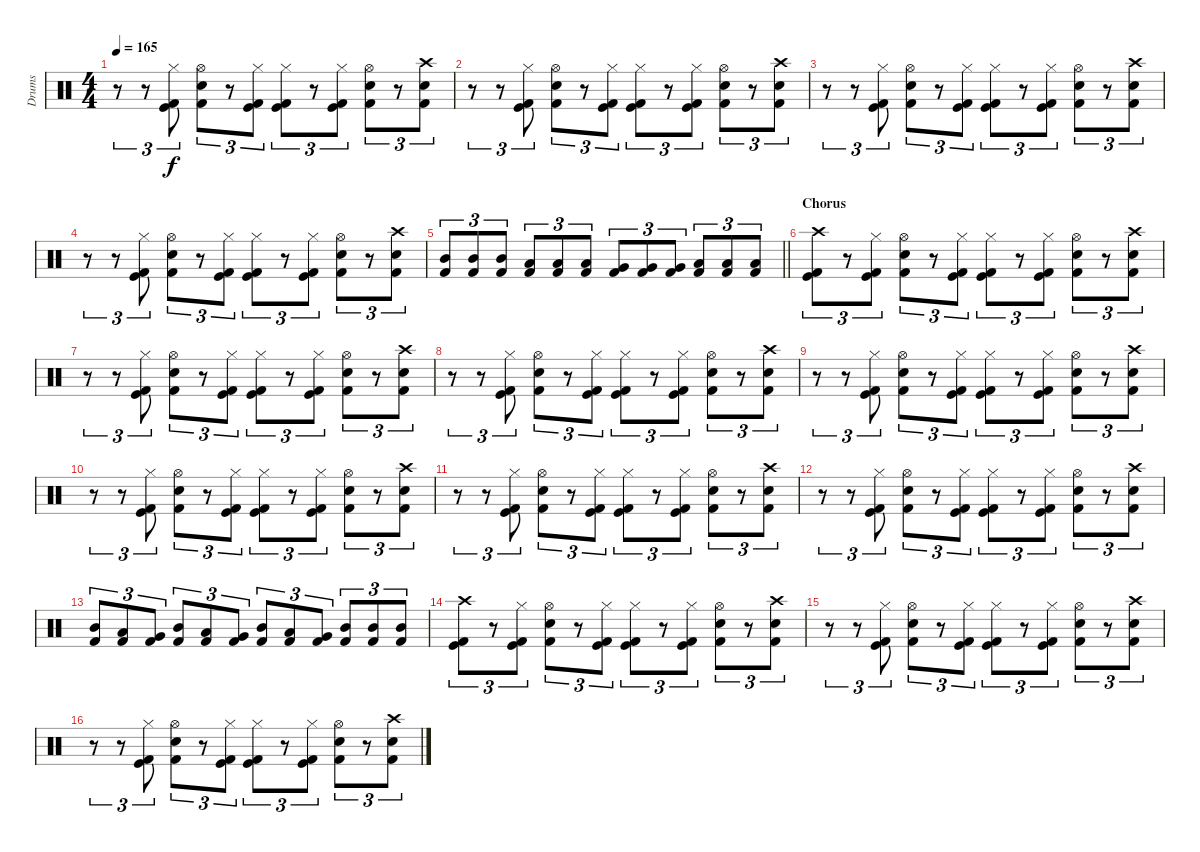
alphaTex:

\track ("Drums" "Drums") {instrument percussion}
\staff {score}
\articulation defaults
\ts (4 4)
\tempo 165
\clef neutral
\ks c
r.8{tu (3 2) dy f} r.8{tu (3 2)} ("Kick (hit)" "Kick (hit) 2" "Hi-Hat (closed)").8{tu (3 2)} ("Snare (hit) 2" "Kick (hit) 2" "Hi-Hat (open)").8{tu (3 2)} r.8{tu (3 2)} ("Kick (hit)" "Kick (hit) 2" "Hi-Hat (closed)").8{tu (3 2)} ("Kick (hit)" "Kick (hit) 2" "Hi-Hat (closed)").8{tu (3 2)} r.8{tu (3 2)} ("Kick (hit)" "Kick (hit) 2" "Hi-Hat (closed)").8{tu (3 2)} ("Snare (hit) 2" "Kick (hit) 2" "Hi-Hat (open)").8{tu (3 2)} r.8{tu (3 2)} ("Snare (hit) 2" "Kick (hit) 2" "Crash high (hit)").8{tu (3 2)} |
r.8{tu (3 2)} r.8{tu (3 2)} ("Kick (hit)" "Kick (hit) 2" "Hi-Hat (closed)").8{tu (3 2)} ("Snare (hit) 2" "Kick (hit) 2" "Hi-Hat (open)").8{tu (3 2)} r.8{tu (3 2)} ("Kick (hit)" "Kick (hit) 2" "Hi-Hat (closed)").8{tu (3 2)} ("Kick (hit)" "Kick (hit) 2" "Hi-Hat (closed)").8{tu (3 2)} r.8{tu (3 2)} ("Kick (hit)" "Kick (hit) 2" "Hi-Hat (closed)").8{tu (3 2)} ("Snare (hit) 2" "Kick (hit) 2" "Hi-Hat (open)").8{tu (3 2)} r.8{tu (3 2)} ("Snare (hit) 2" "Kick (hit) 2" "Crash high (hit)").8{tu (3 2)} |
r.8{tu (3 2)} r.8{tu (3 2)} ("Kick (hit)" "Kick (hit) 2" "Hi-Hat (closed)").8{tu (3 2)} ("Snare (hit) 2" "Kick (hit) 2" "Hi-Hat (open)").8{tu (3 2)} r.8{tu (3 2)} ("Kick (hit)" "Kick (hit) 2" "Hi-Hat (closed)").8{tu (3 2)} ("Kick (hit)" "Kick (hit) 2" "Hi-Hat (closed)").8{tu (3 2)} r.8{tu (3 2)} ("Kick (hit)" "Kick (hit) 2" "Hi-Hat (closed)").8{tu (3 2)} ("Snare (hit) 2" "Kick (hit) 2" "Hi-Hat (open)").8{tu (3 2)} r.8{tu (3 2)} ("Snare (hit) 2" "Kick (hit) 2" "Crash high (hit)").8{tu (3 2)} |
r.8{tu (3 2)} r.8{tu (3 2)} ("Kick (hit)" "Kick (hit) 2" "Hi-Hat (closed)").8{tu (3 2)} ("Snare (hit) 2" "Kick (hit) 2" "Hi-Hat (open)").8{tu (3 2)} r.8{tu (3 2)} ("Kick (hit)" "Kick (hit) 2" "Hi-Hat (closed)").8{tu (3 2)} ("Kick (hit)" "Kick (hit) 2" "Hi-Hat (closed)").8{tu (3 2)} r.8{tu (3 2)} ("Kick (hit)" "Kick (hit) 2" "Hi-Hat (closed)").8{tu (3 2)} ("Snare (hit) 2" "Kick (hit) 2" "Hi-Hat (open)").8{tu (3 2)} r.8{tu (3 2)} ("Snare (hit) 2" "Kick (hit) 2" "Crash high (hit)").8{tu (3 2)} |
\barLineRight lightlight
("Mid Tom (hit)" "Kick (hit) 2").8{tu (3 2)} ("Mid Tom (hit)" "Kick (hit) 2").8{tu (3 2)} ("Mid Tom (hit)" "Kick (hit) 2").8{tu (3 2)} ("Low Tom (hit)" "Kick (hit) 2").8{tu (3 2)} ("Low Tom (hit)" "Kick (hit) 2").8{tu (3 2)} ("Low Tom (hit)" "Kick (hit) 2").8{tu (3 2)} ("Very Low Tom (hit)" "Kick (hit) 2").8{tu (3 2)} ("Very Low Tom (hit)" "Kick (hit) 2").8{tu (3 2)} ("Very Low Tom (hit)" "Kick (hit) 2").8{tu (3 2)} ("Low Floor Tom (hit)" "Kick (hit) 2").8{tu (3 2)} ("Low Floor Tom (hit)" "Kick (hit) 2").8{tu (3 2)} ("Low Floor Tom (hit)" "Kick (hit) 2").8{tu (3 2)} |
\section ("" "Chorus")
("Kick (hit)" "Kick (hit) 2" "Crash high (hit)").8{tu (3 2)} r.8{tu (3 2)} ("Kick (hit)" "Kick (hit) 2" "Hi-Hat (closed)").8{tu (3 2)} ("Snare (hit) 2" "Kick (hit) 2" "Hi-Hat (open)").8{tu (3 2)} r.8{tu (3 2)} ("Kick (hit)" "Kick (hit) 2" "Hi-Hat (closed)").8{tu (3 2)} ("Kick (hit)" "Kick (hit) 2" "Hi-Hat (closed)").8{tu (3 2)} r.8{tu (3 2)} ("Kick (hit)" "Kick (hit) 2" "Hi-Hat (closed)").8{tu (3 2)} ("Snare (hit) 2" "Kick (hit) 2" "Hi-Hat (open)").8{tu (3 2)} r.8{tu (3 2)} ("Snare (hit) 2" "Kick (hit) 2" "Crash high (hit)").8{tu (3 2)} |
r.8{tu (3 2)} r.8{tu (3 2)} ("Kick (hit)" "Kick (hit) 2" "Hi-Hat (closed)").8{tu (3 2)} ("Snare (hit) 2" "Kick (hit) 2" "Hi-Hat (open)").8{tu (3 2)} r.8{tu (3 2)} ("Kick (hit)" "Kick (hit) 2" "Hi-Hat (closed)").8{tu (3 2)} ("Kick (hit)" "Kick (hit) 2" "Hi-Hat (closed)").8{tu (3 2)} r.8{tu (3 2)} ("Kick (hit)" "Kick (hit) 2" "Hi-Hat (closed)").8{tu (3 2)} ("Snare (hit) 2" "Kick (hit) 2" "Hi-Hat (open)").8{tu (3 2)} r.8{tu (3 2)} ("Snare (hit) 2" "Kick (hit) 2" "Crash high (hit)").8{tu (3 2)} |
r.8{tu (3 2)} r.8{tu (3 2)} ("Kick (hit)" "Kick (hit) 2" "Hi-Hat (closed)").8{tu (3 2)} ("Snare (hit) 2" "Kick (hit) 2" "Hi-Hat (open)").8{tu (3 2)} r.8{tu (3 2)} ("Kick (hit)" "Kick (hit) 2" "Hi-Hat (closed)").8{tu (3 2)} ("Kick (hit)" "Kick (hit) 2" "Hi-Hat (closed)").8{tu (3 2)} r.8{tu (3 2)} ("Kick (hit)" "Kick (hit) 2" "Hi-Hat (closed)").8{tu (3 2)} ("Snare (hit) 2" "Kick (hit) 2" "Hi-Hat (open)").8{tu (3 2)} r.8{tu (3 2)} ("Snare (hit) 2" "Kick (hit) 2" "Crash high (hit)").8{tu (3 2)} |
r.8{tu (3 2)} r.8{tu (3 2)} ("Kick (hit)" "Kick (hit) 2" "Hi-Hat (closed)").8{tu (3 2)} ("Snare (hit) 2" "Kick (hit) 2" "Hi-Hat (open)").8{tu (3 2)} r.8{tu (3 2)} ("Kick (hit)" "Kick (hit) 2" "Hi-Hat (closed)").8{tu (3 2)} ("Kick (hit)" "Kick (hit) 2" "Hi-Hat (closed)").8{tu (3 2)} r.8{tu (3 2)} ("Kick (hit)" "Kick (hit) 2" "Hi-Hat (closed)").8{tu (3 2)} ("Snare (hit) 2" "Kick (hit) 2" "Hi-Hat (open)").8{tu (3 2)} r.8{tu (3 2)} ("Snare (hit) 2" "Kick (hit) 2" "Crash high (hit)").8{tu (3 2)} |
r.8{tu (3 2)} r.8{tu (3 2)} ("Kick (hit)" "Kick (hit) 2" "Hi-Hat (closed)").8{tu (3 2)} ("Snare (hit) 2" "Kick (hit) 2" "Hi-Hat (open)").8{tu (3 2)} r.8{tu (3 2)} ("Kick (hit)" "Kick (hit) 2" "Hi-Hat (closed)").8{tu (3 2)} ("Kick (hit)" "Kick (hit) 2" "Hi-Hat (closed)").8{tu (3 2)} r.8{tu (3 2)} ("Kick (hit)" "Kick (hit) 2" "Hi-Hat (closed)").8{tu (3 2)} ("Snare (hit) 2" "Kick (hit) 2" "Hi-Hat (open)").8{tu (3 2)} r.8{tu (3 2)} ("Snare (hit) 2" "Kick (hit) 2" "Crash high (hit)").8{tu (3 2)} |
r.8{tu (3 2)} r.8{tu (3 2)} ("Kick (hit)" "Kick (hit) 2" "Hi-Hat (closed)").8{tu (3 2)} ("Snare (hit) 2" "Kick (hit) 2" "Hi-Hat (open)").8{tu (3 2)} r.8{tu (3 2)} ("Kick (hit)" "Kick (hit) 2" "Hi-Hat (closed)").8{tu (3 2)} ("Kick (hit)" "Kick (hit) 2" "Hi-Hat (closed)").8{tu (3 2)} r.8{tu (3 2)} ("Kick (hit)" "Kick (hit) 2" "Hi-Hat (closed)").8{tu (3 2)} ("Snare (hit) 2" "Kick (hit) 2" "Hi-Hat (open)").8{tu (3 2)} r.8{tu (3 2)} ("Snare (hit) 2" "Kick (hit) 2" "Crash high (hit)").8{tu (3 2)} |
r.8{tu (3 2)} r.8{tu (3 2)} ("Kick (hit)" "Kick (hit) 2" "Hi-Hat (closed)").8{tu (3 2)} ("Snare (hit) 2" "Kick (hit) 2" "Hi-Hat (open)").8{tu (3 2)} r.8{tu (3 2)} ("Kick (hit)" "Kick (hit) 2" "Hi-Hat (closed)").8{tu (3 2)} ("Kick (hit)" "Kick (hit) 2" "Hi-Hat (closed)").8{tu (3 2)} r.8{tu (3 2)} ("Kick (hit)" "Kick (hit) 2" "Hi-Hat (closed)").8{tu (3 2)} ("Snare (hit) 2" "Kick (hit) 2" "Hi-Hat (open)").8{tu (3 2)} r.8{tu (3 2)} ("Snare (hit) 2" "Kick (hit) 2" "Crash high (hit)").8{tu (3 2)} |
("Mid Tom (hit)" "Kick (hit) 2").8{tu (3 2)} ("Low Tom (hit)" "Kick (hit) 2").8{tu (3 2)} ("Very Low Tom (hit)" "Kick (hit) 2").8{tu (3 2)} ("Mid Tom (hit)" "Kick (hit) 2").8{tu (3 2)} ("Low Tom (hit)" "Kick (hit) 2").8{tu (3 2)} ("Very Low Tom (hit)" "Kick (hit) 2").8{tu (3 2)} ("Mid Tom (hit)" "Kick (hit) 2").8{tu (3 2)} ("Low Tom (hit)" "Kick (hit) 2").8{tu (3 2)} ("Very Low Tom (hit)" "Kick (hit) 2").8{tu (3 2)} ("Mid Tom (hit)" "Kick (hit) 2").8{tu (3 2)} ("Mid Tom (hit)" "Kick (hit) 2").8{tu (3 2)} ("Mid Tom (hit)" "Kick (hit) 2").8{tu (3 2)} |
("Kick (hit)" "Kick (hit) 2" "Crash high (hit)").8{tu (3 2)} r.8{tu (3 2)} ("Kick (hit)" "Kick (hit) 2" "Hi-Hat (closed)").8{tu (3 2)} ("Snare (hit) 2" "Kick (hit) 2" "Hi-Hat (open)").8{tu (3 2)} r.8{tu (3 2)} ("Kick (hit)" "Kick (hit) 2" "Hi-Hat (closed)").8{tu (3 2)} ("Kick (hit)" "Kick (hit) 2" "Hi-Hat (closed)").8{tu (3 2)} r.8{tu (3 2)} ("Kick (hit)" "Kick (hit) 2" "Hi-Hat (closed)").8{tu (3 2)} ("Snare (hit) 2" "Kick (hit) 2" "Hi-Hat (open)").8{tu (3 2)} r.8{tu (3 2)} ("Snare (hit) 2" "Kick (hit) 2" "Crash high (hit)").8{tu (3 2)} |
r.8{tu (3 2)} r.8{tu (3 2)} ("Kick (hit)" "Kick (hit) 2" "Hi-Hat (closed)").8{tu (3 2)} ("Snare (hit) 2" "Kick (hit) 2" "Hi-Hat (open)").8{tu (3 2)} r.8{tu (3 2)} ("Kick (hit)" "Kick (hit) 2" "Hi-Hat (closed)").8{tu (3 2)} ("Kick (hit)" "Kick (hit) 2" "Hi-Hat (closed)").8{tu (3 2)} r.8{tu (3 2)} ("Kick (hit)" "Kick (hit) 2" "Hi-Hat (closed)").8{tu (3 2)} ("Snare (hit) 2" "Kick (hit) 2" "Hi-Hat (open)").8{tu (3 2)} r.8{tu (3 2)} ("Snare (hit) 2" "Kick (hit) 2" "Crash high (hit)").8{tu (3 2)} |
r.8{tu (3 2)} r.8{tu (3 2)} ("Kick (hit)" "Kick (hit) 2" "Hi-Hat (closed)").8{tu (3 2)} ("Snare (hit) 2" "Kick (hit) 2" "Hi-Hat (open)").8{tu (3 2)} r.8{tu (3 2)} ("Kick (hit)" "Kick (hit) 2" "Hi-Hat (closed)").8{tu (3 2)} ("Kick (hit)" "Kick (hit) 2" "Hi-Hat (closed)").8{tu (3 2)} r.8{tu (3 2)} ("Kick (hit)" "Kick (hit) 2" "Hi-Hat (closed)").8{tu (3 2)} ("Snare (hit) 2" "Kick (hit) 2" "Hi-Hat (open)").8{tu (3 2)} r.8{tu (3 2)} ("Snare (hit) 2" "Kick (hit) 2" "Crash high (hit)").8{tu (3 2)}
